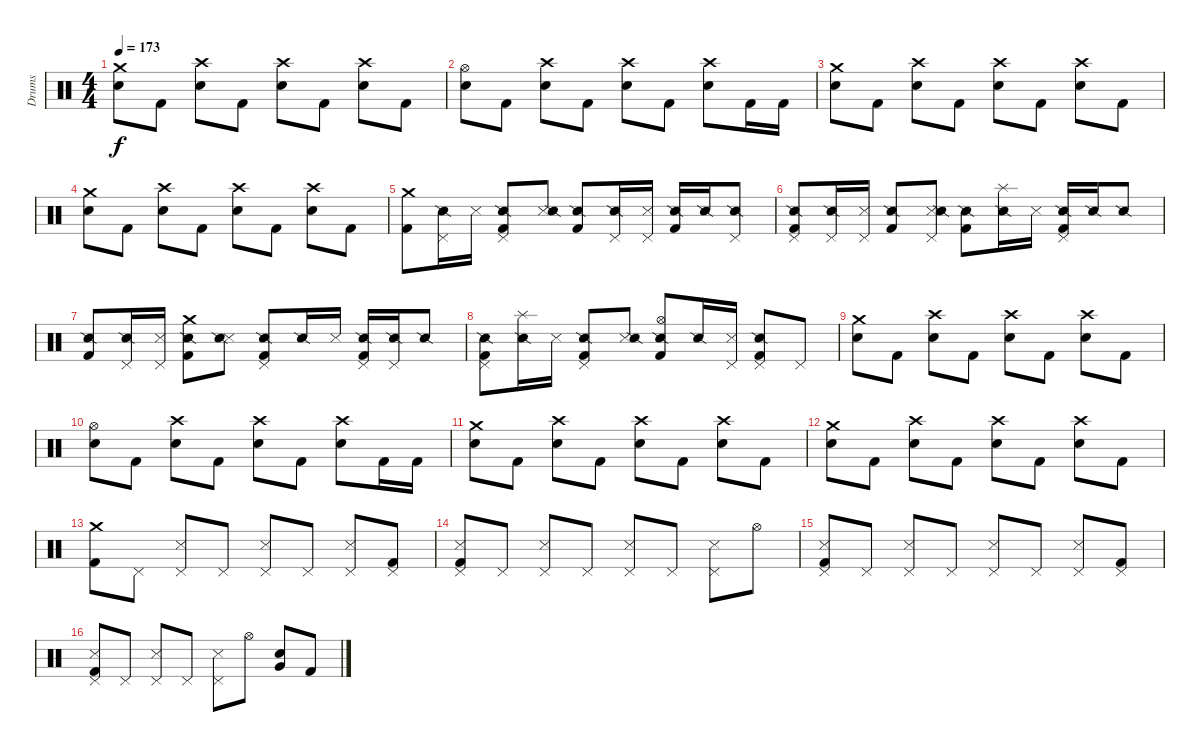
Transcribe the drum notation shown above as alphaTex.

\track ("Drums" "Drums") {instrument percussion}
\staff {score}
\articulation defaults
\ts (4 4)
\tempo 173
\clef neutral
\ks c
("Crash medium (hit)" "Electric Snare (hit)").8{dy f} "Kick (hit) 2".8 ("Crash high (hit)" "Electric Snare (hit)").8 "Kick (hit) 2".8 ("Crash high (hit)" "Electric Snare (hit)").8 "Kick (hit) 2".8 ("Crash high (hit)" "Electric Snare (hit)").8 "Kick (hit) 2".8 |
("Hi-Hat (open)" "Electric Snare (hit)").8 "Kick (hit) 2".8 ("Crash high (hit)" "Electric Snare (hit)").8 "Kick (hit) 2".8 ("Crash high (hit)" "Electric Snare (hit)").8 "Kick (hit) 2".8 ("Crash high (hit)" "Electric Snare (hit)").8 "Kick (hit) 2".16 "Kick (hit) 2".16 |
("Crash medium (hit)" "Electric Snare (hit)").8 "Kick (hit) 2".8 ("Crash high (hit)" "Electric Snare (hit)").8 "Kick (hit) 2".8 ("Crash high (hit)" "Electric Snare (hit)").8 "Kick (hit) 2".8 ("Crash high (hit)" "Electric Snare (hit)").8 "Kick (hit) 2".8 |
("Crash medium (hit)" "Electric Snare (hit)").8 "Kick (hit) 2".8 ("Crash high (hit)" "Electric Snare (hit)").8 "Kick (hit) 2".8 ("Crash high (hit)" "Electric Snare (hit)").8 "Kick (hit) 2".8 ("Crash high (hit)" "Electric Snare (hit)").8 "Kick (hit) 2".8 |
("Crash medium (hit)" "Kick (hit) 2").8 ("Pedal Hi-Hat (hit)" "Snare (side stick) 2").16 "Metronome (hit)".16 ("Pedal Hi-Hat (hit)" "Snare (side stick) 2" "Kick (hit) 2").8 ("Snare (side stick) 3" "Snare (side stick) 2").8 ("Snare (side stick) 2" "Kick (hit) 2").8 ("Pedal Hi-Hat (hit)" "Snare (side stick) 2").16 ("Pedal Hi-Hat (hit)" "Metronome (hit)").16 ("Snare (side stick) 2" "Kick (hit) 2").16 "Snare (side stick) 2".16 ("Pedal Hi-Hat (hit)" "Snare (side stick) 2").8 |
("Pedal Hi-Hat (hit)" "Snare (side stick) 2" "Kick (hit) 2").8 ("Pedal Hi-Hat (hit)" "Snare (side stick) 2").16 ("Pedal Hi-Hat (hit)" "Metronome (hit)").16 ("Snare (side stick) 2" "Kick (hit) 2").8 ("Pedal Hi-Hat (hit)" "Snare (side stick) 3" "Snare (side stick) 2").8 ("Snare (side stick) 2" "Kick (hit) 2").8 ("Splash (hit)" "Snare (side stick) 2").16 "Metronome (hit)".16 ("Pedal Hi-Hat (hit)" "Snare (side stick) 2" "Kick (hit) 2").16 "Snare (side stick) 2".16 "Snare (side stick) 2".8 |
("Snare (side stick) 2" "Kick (hit) 2").8 ("Pedal Hi-Hat (hit)" "Snare (side stick) 2").16 ("Pedal Hi-Hat (hit)" "Metronome (hit)").16 ("Crash medium (hit)" "Snare (side stick) 2" "Kick (hit) 2").8 ("Snare (side stick) 3" "Snare (side stick) 2").8 ("Pedal Hi-Hat (hit)" "Snare (side stick) 2" "Kick (hit) 2").8 "Snare (side stick) 2".16 "Metronome (hit)".16 ("Pedal Hi-Hat (hit)" "Snare (side stick) 2" "Kick (hit) 2").16 ("Pedal Hi-Hat (hit)" "Snare (side stick) 2").16 "Snare (side stick) 2".8 |
("Pedal Hi-Hat (hit)" "Snare (side stick) 2" "Kick (hit) 2").8 ("Splash (hit)" "Snare (side stick) 2").16 "Metronome (hit)".16 ("Pedal Hi-Hat (hit)" "Snare (side stick) 2" "Kick (hit) 2").8 ("Snare (side stick) 3" "Snare (side stick) 2").8 ("Hi-Hat (open)" "Snare (side stick) 2" "Kick (hit) 2").8 "Snare (side stick) 2".16 ("Pedal Hi-Hat (hit)" "Metronome (hit)").16 ("Pedal Hi-Hat (hit)" "Snare (side stick) 2" "Kick (hit) 2").8 "Pedal Hi-Hat (hit)".8 |
("Crash medium (hit)" "Electric Snare (hit)").8 "Kick (hit) 2".8 ("Crash high (hit)" "Electric Snare (hit)").8 "Kick (hit) 2".8 ("Crash high (hit)" "Electric Snare (hit)").8 "Kick (hit) 2".8 ("Crash high (hit)" "Electric Snare (hit)").8 "Kick (hit) 2".8 |
("Hi-Hat (open)" "Electric Snare (hit)").8 "Kick (hit) 2".8 ("Crash high (hit)" "Electric Snare (hit)").8 "Kick (hit) 2".8 ("Crash high (hit)" "Electric Snare (hit)").8 "Kick (hit) 2".8 ("Crash high (hit)" "Electric Snare (hit)").8 "Kick (hit) 2".16 "Kick (hit) 2".16 |
("Crash medium (hit)" "Electric Snare (hit)").8 "Kick (hit) 2".8 ("Crash high (hit)" "Electric Snare (hit)").8 "Kick (hit) 2".8 ("Crash high (hit)" "Electric Snare (hit)").8 "Kick (hit) 2".8 ("Crash high (hit)" "Electric Snare (hit)").8 "Kick (hit) 2".8 |
("Crash medium (hit)" "Electric Snare (hit)").8 "Kick (hit) 2".8 ("Crash high (hit)" "Electric Snare (hit)").8 "Kick (hit) 2".8 ("Crash high (hit)" "Electric Snare (hit)").8 "Kick (hit) 2".8 ("Crash high (hit)" "Electric Snare (hit)").8 "Kick (hit) 2".8 |
("Crash medium (hit)" "Kick (hit) 2").8 "Pedal Hi-Hat (hit)".8 ("Pedal Hi-Hat (hit)" "Snare (side stick) 3").8 "Pedal Hi-Hat (hit)".8 ("Pedal Hi-Hat (hit)" "Snare (side stick) 3").8 "Pedal Hi-Hat (hit)".8 ("Pedal Hi-Hat (hit)" "Snare (side stick) 3").8 ("Pedal Hi-Hat (hit)" "Kick (hit) 2").8 |
("Pedal Hi-Hat (hit)" "Snare (side stick) 3" "Kick (hit) 2").8 "Pedal Hi-Hat (hit)".8 ("Pedal Hi-Hat (hit)" "Snare (side stick) 3").8 "Pedal Hi-Hat (hit)".8 ("Pedal Hi-Hat (hit)" "Snare (side stick) 3").8 "Pedal Hi-Hat (hit)".8 ("Pedal Hi-Hat (hit)" "Snare (side stick) 3").8 "Hi-Hat (open)".8 |
("Pedal Hi-Hat (hit)" "Snare (side stick) 3" "Kick (hit) 2").8 "Pedal Hi-Hat (hit)".8 ("Pedal Hi-Hat (hit)" "Snare (side stick) 3").8 "Pedal Hi-Hat (hit)".8 ("Pedal Hi-Hat (hit)" "Snare (side stick) 3").8 "Pedal Hi-Hat (hit)".8 ("Pedal Hi-Hat (hit)" "Snare (side stick) 3").8 ("Pedal Hi-Hat (hit)" "Kick (hit) 2").8 |
("Pedal Hi-Hat (hit)" "Snare (side stick) 3" "Kick (hit) 2").8 "Pedal Hi-Hat (hit)".8 ("Pedal Hi-Hat (hit)" "Snare (side stick) 3").8 "Pedal Hi-Hat (hit)".8 ("Pedal Hi-Hat (hit)" "Snare (side stick) 3").8 "Hi-Hat (open)".8 ("Very Low Tom (hit)" "Electric Snare (hit)").8 "Kick (hit) 2".8
